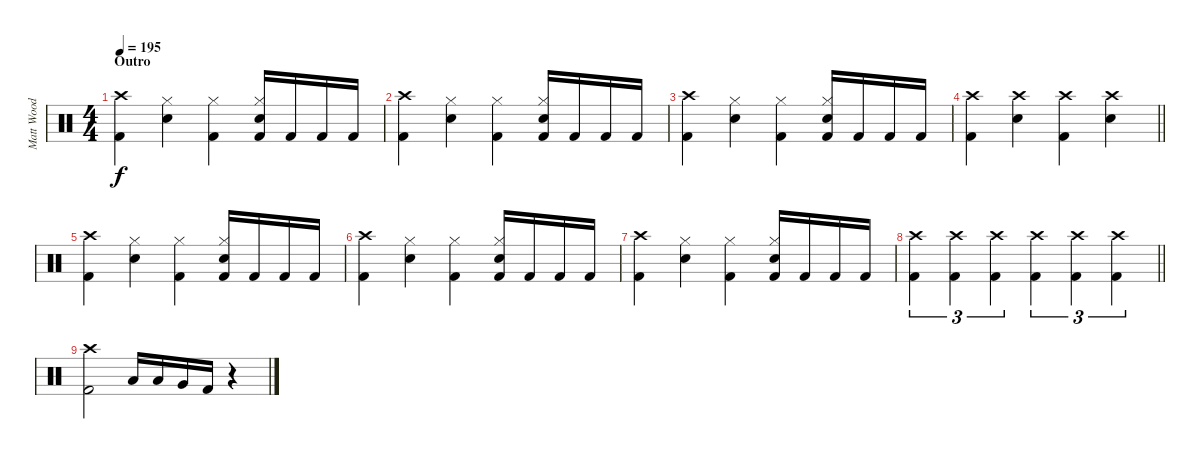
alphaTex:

\track ("Matt Wood" "Matt Wood") {instrument percussion}
\staff {score}
\articulation defaults
\ts (4 4)
\section ("" "Outro")
\tempo 195
\clef neutral
\ks c
("Crash high (hit)" "Kick (hit) 2").4{dy f} ("Hi-Hat (closed)" "Snare (hit) 2").4 ("Hi-Hat (closed)" "Kick (hit) 2").4 ("Hi-Hat (closed)" "Snare (hit) 2" "Kick (hit) 2").16 "Kick (hit) 2".16 "Kick (hit) 2".16 "Kick (hit) 2".16 |
("Crash high (hit)" "Kick (hit) 2").4 ("Hi-Hat (closed)" "Snare (hit) 2").4 ("Hi-Hat (closed)" "Kick (hit) 2").4 ("Hi-Hat (closed)" "Snare (hit) 2" "Kick (hit) 2").16 "Kick (hit) 2".16 "Kick (hit) 2".16 "Kick (hit) 2".16 |
("Crash high (hit)" "Kick (hit) 2").4 ("Hi-Hat (closed)" "Snare (hit) 2").4 ("Hi-Hat (closed)" "Kick (hit) 2").4 ("Hi-Hat (closed)" "Snare (hit) 2" "Kick (hit) 2").16 "Kick (hit) 2".16 "Kick (hit) 2".16 "Kick (hit) 2".16 |
\barLineRight lightlight
("Crash high (hit)" "Kick (hit) 2").4 ("Crash high (hit)" "Snare (hit) 2").4 ("Crash high (hit)" "Kick (hit) 2").4 ("Crash high (hit)" "Snare (hit) 2").4 |
("Crash high (hit)" "Kick (hit) 2").4 ("Hi-Hat (closed)" "Snare (hit) 2").4 ("Hi-Hat (closed)" "Kick (hit) 2").4 ("Hi-Hat (closed)" "Snare (hit) 2" "Kick (hit) 2").16 "Kick (hit) 2".16 "Kick (hit) 2".16 "Kick (hit) 2".16 |
("Crash high (hit)" "Kick (hit) 2").4 ("Hi-Hat (closed)" "Snare (hit) 2").4 ("Hi-Hat (closed)" "Kick (hit) 2").4 ("Hi-Hat (closed)" "Snare (hit) 2" "Kick (hit) 2").16 "Kick (hit) 2".16 "Kick (hit) 2".16 "Kick (hit) 2".16 |
("Crash high (hit)" "Kick (hit) 2").4 ("Hi-Hat (closed)" "Snare (hit) 2").4 ("Hi-Hat (closed)" "Kick (hit) 2").4 ("Hi-Hat (closed)" "Snare (hit) 2" "Kick (hit) 2").16 "Kick (hit) 2".16 "Kick (hit) 2".16 "Kick (hit) 2".16 |
\barLineRight lightlight
("Crash high (hit)" "Kick (hit) 2").4{tu (3 2)} ("Crash high (hit)" "Kick (hit) 2").4{tu (3 2)} ("Crash high (hit)" "Kick (hit) 2").4{tu (3 2)} ("Crash high (hit)" "Kick (hit) 2").4{tu (3 2)} ("Crash high (hit)" "Kick (hit) 2").4{tu (3 2)} ("Crash high (hit)" "Kick (hit) 2").4{tu (3 2)} |
("Crash high (hit)" "Kick (hit) 2").2 "Low Tom (hit)".16 "Low Tom (hit)".16 "Very Low Tom (hit)".16 "Kick (hit) 2".16 r.4
